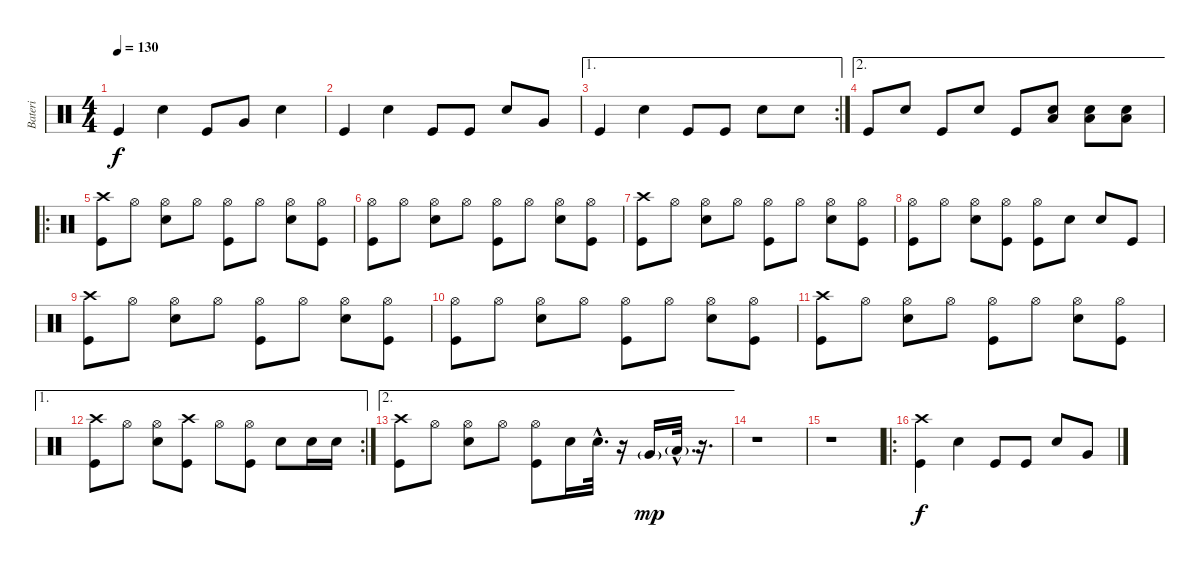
\track ("Bateri" "Bateri") {instrument percussion}
\staff {score}
\articulation defaults
\ts (4 4)
\tempo 130
\clef neutral
\ks c "Kick (hit)".4{dy f} "Electric Snare (hit)".4 "Kick (hit)".8 "Very Low Tom (hit)".8 "Electric Snare (hit)".4
|
"Kick (hit)".4 "Electric Snare (hit)".4 "Kick (hit)".8 "Kick (hit)".8 "Electric Snare (hit)".8 "Very Low Tom (hit)".8 |
\ae 1
\rc 2 "Kick (hit)".4 "Electric Snare (hit)".4 "Kick (hit)".8 "Kick (hit)".8 "Electric Snare (hit)".8 "Electric Snare (hit)".8
|
\ae 2 "Kick (hit)".8 "Electric Snare (hit)".8 "Kick (hit)".8 "Electric Snare (hit)".8 "Kick (hit)".8
("Electric Snare (hit)" "Low Floor Tom (hit)").8 ("Electric Snare (hit)" "Low Floor Tom (hit)").8 ("Electric Snare (hit)" "Low Floor Tom (hit)").8 |
\ro
("Crash high (hit)" "Kick (hit)").8 "Hi-Hat (open)".8 ("Hi-Hat (open)" "Electric Snare (hit)").8 "Hi-Hat (open)".8 ("Hi-Hat (open)" "Kick (hit)").8 "Hi-Hat (open)".8 ("Hi-Hat (open)" "Electric Snare (hit)").8 ("Hi-Hat (open)" "Kick (hit)").8 |
("Hi-Hat (open)" "Kick (hit)").8 "Hi-Hat (open)".8 ("Hi-Hat (open)" "Electric Snare (hit)").8 "Hi-Hat (open)".8 ("Hi-Hat (open)" "Kick (hit)").8 "Hi-Hat (open)".8 ("Hi-Hat (open)" "Electric Snare (hit)").8 ("Hi-Hat (open)" "Kick (hit)").8 |
("Crash high (hit)" "Kick (hit)").8 "Hi-Hat (open)".8 ("Hi-Hat (open)" "Electric Snare (hit)").8 "Hi-Hat (open)".8 ("Hi-Hat (open)" "Kick (hit)").8 "Hi-Hat (open)".8 ("Hi-Hat (open)" "Electric Snare (hit)").8 ("Hi-Hat (open)" "Kick (hit)").8 |
("Hi-Hat (open)" "Kick (hit)").8 "Hi-Hat (open)".8 ("Hi-Hat (open)" "Electric Snare (hit)").8 ("Hi-Hat (open)" "Kick (hit)").8 ("Hi-Hat (open)" "Kick (hit)").8 "Electric Snare (hit)".8 "Electric Snare (hit)".8 "Kick (hit)".8 |
("Crash high (hit)" "Kick (hit)").8 "Hi-Hat (open)".8 ("Hi-Hat (open)" "Electric Snare (hit)").8 "Hi-Hat (open)".8 ("Hi-Hat (open)" "Kick (hit)").8 "Hi-Hat (open)".8 ("Hi-Hat (open)" "Electric Snare (hit)").8 ("Hi-Hat (open)" "Kick (hit)").8 |
("Hi-Hat (open)" "Kick (hit)").8 "Hi-Hat (open)".8 ("Hi-Hat (open)" "Electric Snare (hit)").8 "Hi-Hat (open)".8 ("Hi-Hat (open)" "Kick (hit)").8 "Hi-Hat (open)".8 ("Hi-Hat (open)" "Electric Snare (hit)").8 ("Hi-Hat (open)" "Kick (hit)").8 |
("Crash high (hit)" "Kick (hit)").8 "Hi-Hat (open)".8 ("Hi-Hat (open)" "Electric Snare (hit)").8 "Hi-Hat (open)".8 ("Hi-Hat (open)" "Kick (hit)").8 "Hi-Hat (open)".8 ("Hi-Hat (open)" "Electric Snare (hit)").8 ("Hi-Hat (open)" "Kick (hit)").8 |
\ae 1
\rc 2
("Crash high (hit)" "Kick (hit)").8 "Hi-Hat (open)".8 ("Hi-Hat (open)" "Electric Snare (hit)").8 ("Crash high (hit)" "Kick (hit)").8 "Hi-Hat (open)".8 ("Hi-Hat (open)" "Kick (hit)").8 "Electric Snare (hit)".8 "Electric Snare (hit)".16 "Electric Snare (hit)".16 |
\ae 2
("Crash high (hit)" "Kick (hit)").8 "Hi-Hat (open)".8 ("Hi-Hat (open)" "Electric Snare (hit)").8 "Hi-Hat (open)".8 ("Hi-Hat (open)" "Kick (hit)").8 "Electric Snare (hit)".16 "Electric Snare (hit)"{hac}.32{d} r.16 "Very Low Tom (hit)"{g}.16{dy mp} "Low Floor Tom (hit)"{g hac}.32{d} r.16{d} |
r.1 |
r.1 |
\ro
("Kick (hit)" "Crash high (hit)").4{dy f} "Electric Snare (hit)".4 "Kick (hit)".8 "Kick (hit)".8 "Electric Snare (hit)".8 "Very Low Tom (hit)".8
